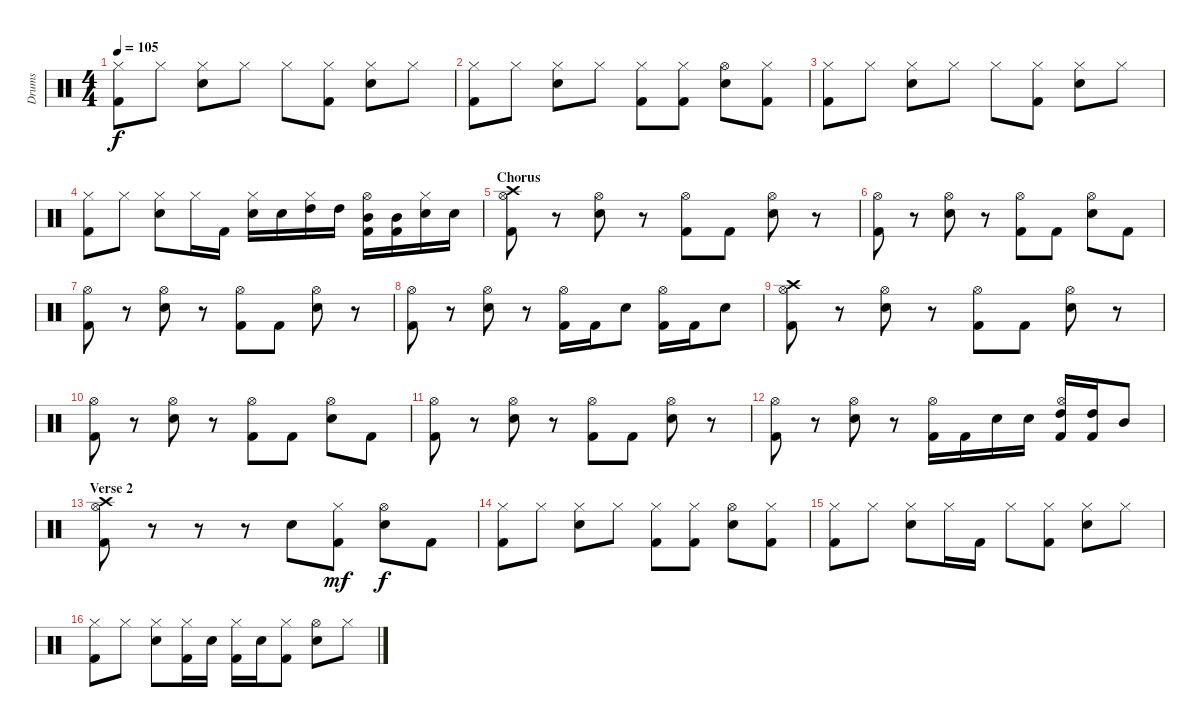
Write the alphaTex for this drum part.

\track ("Drums" "Drums") {instrument percussion}
\staff {score}
\articulation defaults
\ts (4 4)
\tempo 105
\clef neutral
\ks c
("Hi-Hat (closed)" "Kick (hit) 2").8{dy f} "Hi-Hat (closed)".8 ("Hi-Hat (closed)" "Electric Snare (hit)").8 "Hi-Hat (closed)".8 "Hi-Hat (closed)".8 ("Hi-Hat (closed)" "Kick (hit) 2").8 ("Hi-Hat (closed)" "Electric Snare (hit)").8 "Hi-Hat (closed)".8 |
("Hi-Hat (closed)" "Kick (hit) 2").8 "Hi-Hat (closed)".8 ("Hi-Hat (closed)" "Electric Snare (hit)").8 "Hi-Hat (closed)".8 ("Hi-Hat (closed)" "Kick (hit) 2").8 ("Hi-Hat (closed)" "Kick (hit) 2").8 ("Hi-Hat (open)" "Electric Snare (hit)").8 ("Hi-Hat (closed)" "Kick (hit) 2").8 |
("Hi-Hat (closed)" "Kick (hit) 2").8 "Hi-Hat (closed)".8 ("Hi-Hat (closed)" "Electric Snare (hit)").8 "Hi-Hat (closed)".8 "Hi-Hat (closed)".8 ("Hi-Hat (closed)" "Kick (hit) 2").8 ("Hi-Hat (closed)" "Electric Snare (hit)").8 "Hi-Hat (closed)".8 |
("Hi-Hat (closed)" "Kick (hit) 2").8 "Hi-Hat (closed)".8 ("Hi-Hat (closed)" "Electric Snare (hit)").8 "Hi-Hat (closed)".16 "Kick (hit) 2".16 ("Hi-Hat (closed)" "Electric Snare (hit)").16 "Electric Snare (hit)".16 ("Hi-Hat (closed)" "High Tom (hit)").16 "High Tom (hit)".16 ("Hi-Hat (open)" "Mid Tom (hit)" "Kick (hit) 2").16 ("Mid Tom (hit)" "Kick (hit) 2").16 ("Hi-Hat (closed)" "Electric Snare (hit)").16 "Electric Snare (hit)".16 |
\section ("" "Chorus")
("Crash high (hit)" "Hi-Hat (open)" "Kick (hit) 2").8 r.8 ("Hi-Hat (open)" "Electric Snare (hit)").8 r.8 ("Hi-Hat (open)" "Kick (hit) 2").8 "Kick (hit) 2".8 ("Hi-Hat (open)" "Electric Snare (hit)").8 r.8 |
("Hi-Hat (open)" "Kick (hit) 2").8 r.8 ("Hi-Hat (open)" "Electric Snare (hit)").8 r.8 ("Hi-Hat (open)" "Kick (hit) 2").8 "Kick (hit) 2".8 ("Hi-Hat (open)" "Electric Snare (hit)").8 "Kick (hit) 2".8 |
("Hi-Hat (open)" "Kick (hit) 2").8 r.8 ("Hi-Hat (open)" "Electric Snare (hit)").8 r.8 ("Hi-Hat (open)" "Kick (hit) 2").8 "Kick (hit) 2".8 ("Hi-Hat (open)" "Electric Snare (hit)").8 r.8 |
("Hi-Hat (open)" "Kick (hit) 2").8 r.8 ("Hi-Hat (open)" "Electric Snare (hit)").8 r.8 ("Hi-Hat (open)" "Kick (hit) 2").16 "Kick (hit) 2".16 "Electric Snare (hit)".8 ("Hi-Hat (open)" "Kick (hit) 2").16 "Kick (hit) 2".16 "Electric Snare (hit)".8 |
("Crash high (hit)" "Hi-Hat (open)" "Kick (hit) 2").8 r.8 ("Hi-Hat (open)" "Electric Snare (hit)").8 r.8 ("Hi-Hat (open)" "Kick (hit) 2").8 "Kick (hit) 2".8 ("Hi-Hat (open)" "Electric Snare (hit)").8 r.8 |
("Hi-Hat (open)" "Kick (hit) 2").8 r.8 ("Hi-Hat (open)" "Electric Snare (hit)").8 r.8 ("Hi-Hat (open)" "Kick (hit) 2").8 "Kick (hit) 2".8 ("Hi-Hat (open)" "Electric Snare (hit)").8 "Kick (hit) 2".8 |
("Hi-Hat (open)" "Kick (hit) 2").8 r.8 ("Hi-Hat (open)" "Electric Snare (hit)").8 r.8 ("Hi-Hat (open)" "Kick (hit) 2").8 "Kick (hit) 2".8 ("Hi-Hat (open)" "Electric Snare (hit)").8 r.8 |
("Hi-Hat (open)" "Kick (hit) 2").8 r.8 ("Hi-Hat (open)" "Electric Snare (hit)").8 r.8 ("Hi-Hat (open)" "Kick (hit) 2").16 "Kick (hit) 2".16 "Electric Snare (hit)".16 "Electric Snare (hit)".16 ("Hi-Hat (open)" "High Tom (hit)" "Kick (hit) 2").16 ("High Tom (hit)" "Kick (hit) 2").16 "Mid Tom (hit)".8 |
\section ("" "Verse 2")
("Crash high (hit)" "Hi-Hat (open)" "Kick (hit) 2").8 r.8 r.8 r.8 "Electric Snare (hit)".8 ("Hi-Hat (closed)" "Kick (hit) 2").8{dy mf} ("Hi-Hat (open)" "Electric Snare (hit)").8{dy f} "Kick (hit) 2".8 |
("Hi-Hat (closed)" "Kick (hit) 2").8 "Hi-Hat (closed)".8 ("Hi-Hat (closed)" "Electric Snare (hit)").8 "Hi-Hat (closed)".8 ("Hi-Hat (closed)" "Kick (hit) 2").8 ("Hi-Hat (closed)" "Kick (hit) 2").8 ("Hi-Hat (open)" "Electric Snare (hit)").8 ("Hi-Hat (closed)" "Kick (hit) 2").8 |
("Hi-Hat (closed)" "Kick (hit) 2").8 "Hi-Hat (closed)".8 ("Hi-Hat (closed)" "Electric Snare (hit)").8 "Hi-Hat (closed)".16 "Kick (hit) 2".16 "Hi-Hat (closed)".8 ("Hi-Hat (closed)" "Kick (hit) 2").8 ("Hi-Hat (closed)" "Electric Snare (hit)").8 "Hi-Hat (closed)".8 |
("Hi-Hat (closed)" "Kick (hit) 2").8 "Hi-Hat (closed)".8 ("Hi-Hat (closed)" "Electric Snare (hit)").8 ("Hi-Hat (closed)" "Kick (hit) 2").16 "Electric Snare (hit)".16 ("Hi-Hat (closed)" "Kick (hit) 2").16 "Electric Snare (hit)".16 ("Hi-Hat (closed)" "Kick (hit) 2").8 ("Hi-Hat (open)" "Electric Snare (hit)").8 "Hi-Hat (closed)".8
